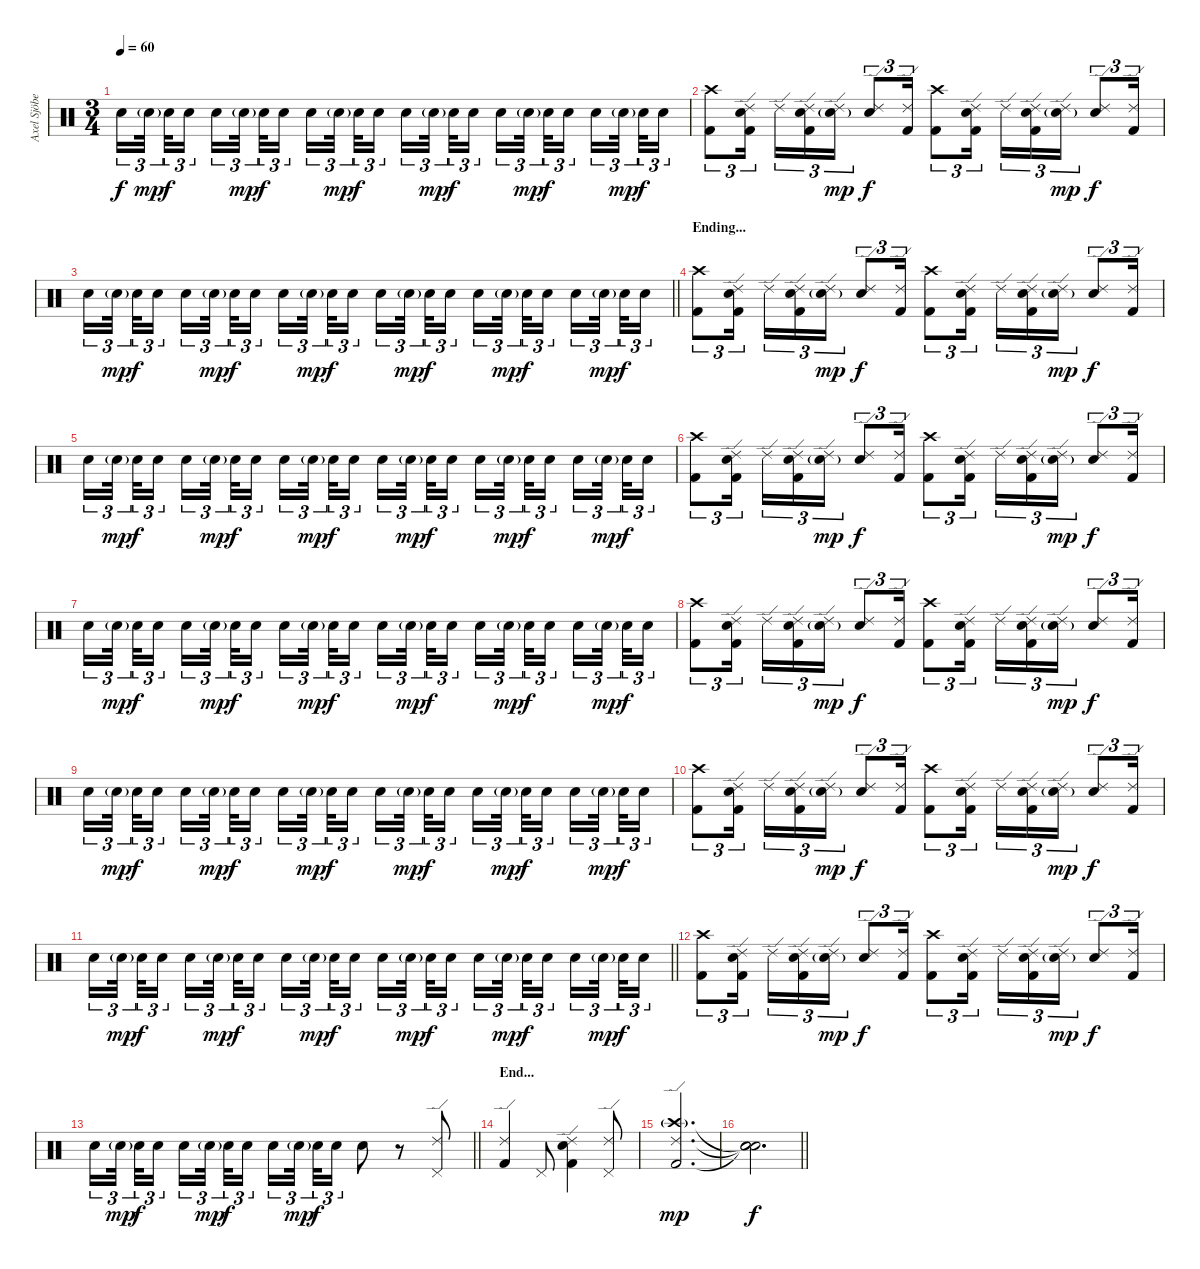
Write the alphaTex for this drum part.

\track ("Axel Sjöberg " "Axel Sjöbe") {instrument percussion}
\staff {score}
\articulation defaults
\ts (3 4)
\tempo 60
\clef neutral
\ks c "Snare (hit) 2".16{tu (3 2) dy f} "Snare (hit) 2"{g}.32{tu (3 2) dy mp beam splitsecondary} "Snare (hit) 2".32{tu (3 2) dy f} "Snare (hit) 2".16{tu (3 2) beam splitsecondary} "Snare (hit) 2".16{tu (3 2)} "Snare (hit) 2"{g}.32{tu (3 2) dy mp beam splitsecondary} "Snare (hit) 2".32{tu (3 2) dy f} "Snare (hit) 2".16{tu (3 2)} "Snare (hit) 2".16{tu (3 2)} "Snare (hit) 2"{g}.32{tu (3 2) dy mp beam splitsecondary} "Snare (hit) 2".32{tu (3 2) dy f} "Snare (hit) 2".16{tu (3 2) beam splitsecondary} "Snare (hit) 2".16{tu (3 2)} "Snare (hit) 2"{g}.32{tu (3 2) dy mp beam splitsecondary} "Snare (hit) 2".32{tu (3 2) dy f} "Snare (hit) 2".16{tu (3 2)} "Snare (hit) 2".16{tu (3 2)} "Snare (hit) 2"{g}.32{tu (3 2) dy mp beam splitsecondary} "Snare (hit) 2".32{tu (3 2) dy f} "Snare (hit) 2".16{tu (3 2) beam splitsecondary} "Snare (hit) 2".16{tu (3 2)} "Snare (hit) 2"{g}.32{tu (3 2) dy mp beam splitsecondary} "Snare (hit) 2".32{tu (3 2) dy f} "Snare (hit) 2".16{tu (3 2)}
|
("Kick (hit) 2" "Crash high (hit)").8{tu (3 2)} ("Kick (hit) 2" "Snare (hit) 2" "Ride (edge) 2").16{tu (3 2) beam splitsecondary} "Ride (edge) 2".16{tu (3 2)} ("Kick (hit) 2" "Snare (hit) 2" "Ride (edge) 2").16{tu (3 2)} ("Snare (hit) 2"{g} "Ride (edge) 2").16{tu (3 2) dy mp} ("Snare (hit) 2" "Ride (edge) 2").8{tu (3 2) dy f} ("Kick (hit) 2" "Ride (edge) 2").16{tu (3 2)} ("Kick (hit) 2" "Crash high (hit)").8{tu (3 2)} ("Kick (hit) 2" "Snare (hit) 2" "Ride (edge) 2").16{tu (3 2)} "Ride (edge) 2".16{tu (3 2)} ("Kick (hit) 2" "Snare (hit) 2" "Ride (edge) 2").16{tu (3 2)} ("Snare (hit) 2"{g} "Ride (edge) 2").16{tu (3 2) dy mp} ("Snare (hit) 2" "Ride (edge) 2").8{tu (3 2) dy f} ("Kick (hit) 2" "Ride (edge) 2").16{tu (3 2)} |
\barLineRight lightlight "Snare (hit) 2".16{tu (3 2)} "Snare (hit) 2"{g}.32{tu (3 2) dy mp beam splitsecondary} "Snare (hit) 2".32{tu (3 2) dy f} "Snare (hit) 2".16{tu (3 2) beam splitsecondary} "Snare (hit) 2".16{tu (3 2)} "Snare (hit) 2"{g}.32{tu (3 2) dy mp beam splitsecondary} "Snare (hit) 2".32{tu (3 2) dy f} "Snare (hit) 2".16{tu (3 2)} "Snare (hit) 2".16{tu (3 2)} "Snare (hit) 2"{g}.32{tu (3 2) dy mp beam splitsecondary} "Snare (hit) 2".32{tu (3 2) dy f} "Snare (hit) 2".16{tu (3 2) beam splitsecondary} "Snare (hit) 2".16{tu (3 2)} "Snare (hit) 2"{g}.32{tu (3 2) dy mp beam splitsecondary} "Snare (hit) 2".32{tu (3 2) dy f} "Snare (hit) 2".16{tu (3 2)} "Snare (hit) 2".16{tu (3 2)} "Snare (hit) 2"{g}.32{tu (3 2) dy mp beam splitsecondary} "Snare (hit) 2".32{tu (3 2) dy f} "Snare (hit) 2".16{tu (3 2) beam splitsecondary} "Snare (hit) 2".16{tu (3 2)} "Snare (hit) 2"{g}.32{tu (3 2) dy mp beam splitsecondary} "Snare (hit) 2".32{tu (3 2) dy f} "Snare (hit) 2".16{tu (3 2)}
|
\section ("" "Ending...")
("Kick (hit) 2" "Crash high (hit)").8{tu (3 2)} ("Kick (hit) 2" "Snare (hit) 2" "Ride (edge) 2").16{tu (3 2) beam splitsecondary} "Ride (edge) 2".16{tu (3 2)} ("Kick (hit) 2" "Snare (hit) 2" "Ride (edge) 2").16{tu (3 2)} ("Snare (hit) 2"{g} "Ride (edge) 2").16{tu (3 2) dy mp} ("Snare (hit) 2" "Ride (edge) 2").8{tu (3 2) dy f} ("Kick (hit) 2" "Ride (edge) 2").16{tu (3 2)} ("Kick (hit) 2" "Crash high (hit)").8{tu (3 2)} ("Kick (hit) 2" "Snare (hit) 2" "Ride (edge) 2").16{tu (3 2)} "Ride (edge) 2".16{tu (3 2)} ("Kick (hit) 2" "Snare (hit) 2" "Ride (edge) 2").16{tu (3 2)} ("Snare (hit) 2"{g} "Ride (edge) 2").16{tu (3 2) dy mp} ("Snare (hit) 2" "Ride (edge) 2").8{tu (3 2) dy f} ("Kick (hit) 2" "Ride (edge) 2").16{tu (3 2)} |
"Snare (hit) 2".16{tu (3 2)} "Snare (hit) 2"{g}.32{tu (3 2) dy mp beam splitsecondary} "Snare (hit) 2".32{tu (3 2) dy f} "Snare (hit) 2".16{tu (3 2) beam splitsecondary} "Snare (hit) 2".16{tu (3 2)} "Snare (hit) 2"{g}.32{tu (3 2) dy mp beam splitsecondary} "Snare (hit) 2".32{tu (3 2) dy f} "Snare (hit) 2".16{tu (3 2)} "Snare (hit) 2".16{tu (3 2)} "Snare (hit) 2"{g}.32{tu (3 2) dy mp beam splitsecondary} "Snare (hit) 2".32{tu (3 2) dy f} "Snare (hit) 2".16{tu (3 2) beam splitsecondary} "Snare (hit) 2".16{tu (3 2)} "Snare (hit) 2"{g}.32{tu (3 2) dy mp beam splitsecondary} "Snare (hit) 2".32{tu (3 2) dy f} "Snare (hit) 2".16{tu (3 2)} "Snare (hit) 2".16{tu (3 2)} "Snare (hit) 2"{g}.32{tu (3 2) dy mp beam splitsecondary} "Snare (hit) 2".32{tu (3 2) dy f} "Snare (hit) 2".16{tu (3 2) beam splitsecondary} "Snare (hit) 2".16{tu (3 2)} "Snare (hit) 2"{g}.32{tu (3 2) dy mp beam splitsecondary} "Snare (hit) 2".32{tu (3 2) dy f} "Snare (hit) 2".16{tu (3 2)} |
("Kick (hit) 2" "Crash high (hit)").8{tu (3 2)} ("Kick (hit) 2" "Snare (hit) 2" "Ride (edge) 2").16{tu (3 2) beam splitsecondary} "Ride (edge) 2".16{tu (3 2)} ("Kick (hit) 2" "Snare (hit) 2" "Ride (edge) 2").16{tu (3 2)} ("Snare (hit) 2"{g} "Ride (edge) 2").16{tu (3 2) dy mp} ("Snare (hit) 2" "Ride (edge) 2").8{tu (3 2) dy f} ("Kick (hit) 2" "Ride (edge) 2").16{tu (3 2)} ("Kick (hit) 2" "Crash high (hit)").8{tu (3 2)} ("Kick (hit) 2" "Snare (hit) 2" "Ride (edge) 2").16{tu (3 2)} "Ride (edge) 2".16{tu (3 2)} ("Kick (hit) 2" "Snare (hit) 2" "Ride (edge) 2").16{tu (3 2)} ("Snare (hit) 2"{g} "Ride (edge) 2").16{tu (3 2) dy mp} ("Snare (hit) 2" "Ride (edge) 2").8{tu (3 2) dy f} ("Kick (hit) 2" "Ride (edge) 2").16{tu (3 2)} |
"Snare (hit) 2".16{tu (3 2)} "Snare (hit) 2"{g}.32{tu (3 2) dy mp beam splitsecondary} "Snare (hit) 2".32{tu (3 2) dy f} "Snare (hit) 2".16{tu (3 2) beam splitsecondary} "Snare (hit) 2".16{tu (3 2)} "Snare (hit) 2"{g}.32{tu (3 2) dy mp beam splitsecondary} "Snare (hit) 2".32{tu (3 2) dy f} "Snare (hit) 2".16{tu (3 2)} "Snare (hit) 2".16{tu (3 2)} "Snare (hit) 2"{g}.32{tu (3 2) dy mp beam splitsecondary} "Snare (hit) 2".32{tu (3 2) dy f} "Snare (hit) 2".16{tu (3 2) beam splitsecondary} "Snare (hit) 2".16{tu (3 2)} "Snare (hit) 2"{g}.32{tu (3 2) dy mp beam splitsecondary} "Snare (hit) 2".32{tu (3 2) dy f} "Snare (hit) 2".16{tu (3 2)} "Snare (hit) 2".16{tu (3 2)} "Snare (hit) 2"{g}.32{tu (3 2) dy mp beam splitsecondary} "Snare (hit) 2".32{tu (3 2) dy f} "Snare (hit) 2".16{tu (3 2) beam splitsecondary} "Snare (hit) 2".16{tu (3 2)} "Snare (hit) 2"{g}.32{tu (3 2) dy mp beam splitsecondary} "Snare (hit) 2".32{tu (3 2) dy f} "Snare (hit) 2".16{tu (3 2)} |
("Kick (hit) 2" "Crash high (hit)").8{tu (3 2)} ("Kick (hit) 2" "Snare (hit) 2" "Ride (edge) 2").16{tu (3 2) beam splitsecondary} "Ride (edge) 2".16{tu (3 2)} ("Kick (hit) 2" "Snare (hit) 2" "Ride (edge) 2").16{tu (3 2)} ("Snare (hit) 2"{g} "Ride (edge) 2").16{tu (3 2) dy mp} ("Snare (hit) 2" "Ride (edge) 2").8{tu (3 2) dy f} ("Kick (hit) 2" "Ride (edge) 2").16{tu (3 2)} ("Kick (hit) 2" "Crash high (hit)").8{tu (3 2)} ("Kick (hit) 2" "Snare (hit) 2" "Ride (edge) 2").16{tu (3 2)} "Ride (edge) 2".16{tu (3 2)} ("Kick (hit) 2" "Snare (hit) 2" "Ride (edge) 2").16{tu (3 2)} ("Snare (hit) 2"{g} "Ride (edge) 2").16{tu (3 2) dy mp} ("Snare (hit) 2" "Ride (edge) 2").8{tu (3 2) dy f} ("Kick (hit) 2" "Ride (edge) 2").16{tu (3 2)} |
"Snare (hit) 2".16{tu (3 2)} "Snare (hit) 2"{g}.32{tu (3 2) dy mp beam splitsecondary} "Snare (hit) 2".32{tu (3 2) dy f} "Snare (hit) 2".16{tu (3 2) beam splitsecondary} "Snare (hit) 2".16{tu (3 2)} "Snare (hit) 2"{g}.32{tu (3 2) dy mp beam splitsecondary} "Snare (hit) 2".32{tu (3 2) dy f} "Snare (hit) 2".16{tu (3 2)} "Snare (hit) 2".16{tu (3 2)} "Snare (hit) 2"{g}.32{tu (3 2) dy mp beam splitsecondary} "Snare (hit) 2".32{tu (3 2) dy f} "Snare (hit) 2".16{tu (3 2) beam splitsecondary} "Snare (hit) 2".16{tu (3 2)} "Snare (hit) 2"{g}.32{tu (3 2) dy mp beam splitsecondary} "Snare (hit) 2".32{tu (3 2) dy f} "Snare (hit) 2".16{tu (3 2)} "Snare (hit) 2".16{tu (3 2)} "Snare (hit) 2"{g}.32{tu (3 2) dy mp beam splitsecondary} "Snare (hit) 2".32{tu (3 2) dy f} "Snare (hit) 2".16{tu (3 2) beam splitsecondary} "Snare (hit) 2".16{tu (3 2)} "Snare (hit) 2"{g}.32{tu (3 2) dy mp beam splitsecondary} "Snare (hit) 2".32{tu (3 2) dy f} "Snare (hit) 2".16{tu (3 2)} |
("Kick (hit) 2" "Crash high (hit)").8{tu (3 2)} ("Kick (hit) 2" "Snare (hit) 2" "Ride (edge) 2").16{tu (3 2) beam splitsecondary} "Ride (edge) 2".16{tu (3 2)} ("Kick (hit) 2" "Snare (hit) 2" "Ride (edge) 2").16{tu (3 2)} ("Snare (hit) 2"{g} "Ride (edge) 2").16{tu (3 2) dy mp} ("Snare (hit) 2" "Ride (edge) 2").8{tu (3 2) dy f} ("Kick (hit) 2" "Ride (edge) 2").16{tu (3 2)} ("Kick (hit) 2" "Crash high (hit)").8{tu (3 2)} ("Kick (hit) 2" "Snare (hit) 2" "Ride (edge) 2").16{tu (3 2)} "Ride (edge) 2".16{tu (3 2)} ("Kick (hit) 2" "Snare (hit) 2" "Ride (edge) 2").16{tu (3 2)} ("Snare (hit) 2"{g} "Ride (edge) 2").16{tu (3 2) dy mp} ("Snare (hit) 2" "Ride (edge) 2").8{tu (3 2) dy f} ("Kick (hit) 2" "Ride (edge) 2").16{tu (3 2)} |
\barLineRight lightlight "Snare (hit) 2".16{tu (3 2)} "Snare (hit) 2"{g}.32{tu (3 2) dy mp beam splitsecondary} "Snare (hit) 2".32{tu (3 2) dy f} "Snare (hit) 2".16{tu (3 2) beam splitsecondary} "Snare (hit) 2".16{tu (3 2)} "Snare (hit) 2"{g}.32{tu (3 2) dy mp beam splitsecondary} "Snare (hit) 2".32{tu (3 2) dy f} "Snare (hit) 2".16{tu (3 2)} "Snare (hit) 2".16{tu (3 2)} "Snare (hit) 2"{g}.32{tu (3 2) dy mp beam splitsecondary} "Snare (hit) 2".32{tu (3 2) dy f} "Snare (hit) 2".16{tu (3 2) beam splitsecondary} "Snare (hit) 2".16{tu (3 2)} "Snare (hit) 2"{g}.32{tu (3 2) dy mp beam splitsecondary} "Snare (hit) 2".32{tu (3 2) dy f} "Snare (hit) 2".16{tu (3 2)} "Snare (hit) 2".16{tu (3 2)} "Snare (hit) 2"{g}.32{tu (3 2) dy mp beam splitsecondary} "Snare (hit) 2".32{tu (3 2) dy f} "Snare (hit) 2".16{tu (3 2) beam splitsecondary} "Snare (hit) 2".16{tu (3 2)} "Snare (hit) 2"{g}.32{tu (3 2) dy mp beam splitsecondary} "Snare (hit) 2".32{tu (3 2) dy f} "Snare (hit) 2".16{tu (3 2)}
|
("Kick (hit) 2" "Crash high (hit)").8{tu (3 2)} ("Kick (hit) 2" "Snare (hit) 2" "Ride (edge) 2").16{tu (3 2) beam splitsecondary} "Ride (edge) 2".16{tu (3 2)} ("Kick (hit) 2" "Snare (hit) 2" "Ride (edge) 2").16{tu (3 2)} ("Snare (hit) 2"{g} "Ride (edge) 2").16{tu (3 2) dy mp} ("Snare (hit) 2" "Ride (edge) 2").8{tu (3 2) dy f} ("Kick (hit) 2" "Ride (edge) 2").16{tu (3 2)} ("Kick (hit) 2" "Crash high (hit)").8{tu (3 2)} ("Kick (hit) 2" "Snare (hit) 2" "Ride (edge) 2").16{tu (3 2)} "Ride (edge) 2".16{tu (3 2)} ("Kick (hit) 2" "Snare (hit) 2" "Ride (edge) 2").16{tu (3 2)} ("Snare (hit) 2"{g} "Ride (edge) 2").16{tu (3 2) dy mp} ("Snare (hit) 2" "Ride (edge) 2").8{tu (3 2) dy f} ("Kick (hit) 2" "Ride (edge) 2").16{tu (3 2)} |
\barLineRight lightlight "Snare (hit) 2".16{tu (3 2)} "Snare (hit) 2"{g}.32{tu (3 2) dy mp beam splitsecondary} "Snare (hit) 2".32{tu (3 2) dy f} "Snare (hit) 2".16{tu (3 2) beam splitsecondary} "Snare (hit) 2".16{tu (3 2)} "Snare (hit) 2"{g}.32{tu (3 2) dy mp beam splitsecondary} "Snare (hit) 2".32{tu (3 2) dy f} "Snare (hit) 2".16{tu (3 2)} "Snare (hit) 2".16{tu (3 2)} "Snare (hit) 2"{g}.32{tu (3 2) dy mp beam splitsecondary} "Snare (hit) 2".32{tu (3 2) dy f} "Snare (hit) 2".16{tu (3 2)} "Snare (hit) 2".8
r.8 ("Ride (edge) 2" "Pedal Hi-Hat (hit)").8 |
\section ("" "End...")
("Kick (hit) 2" "Ride (edge) 2").4 "Pedal Hi-Hat (hit)".8 ("Kick (hit) 2" "Snare (hit) 2" "Ride (edge) 2").4 ("Ride (edge) 2" "Pedal Hi-Hat (hit)").8 |
("Kick (hit) 2" "Crash high (hit)"{g} "Ride (edge) 2").2{d dy mp} |
\barLineRight lightlight
("Snare (hit)"{t} "Snare (hit)"{t} "Snare (hit)"{t}).2{d dy f}
